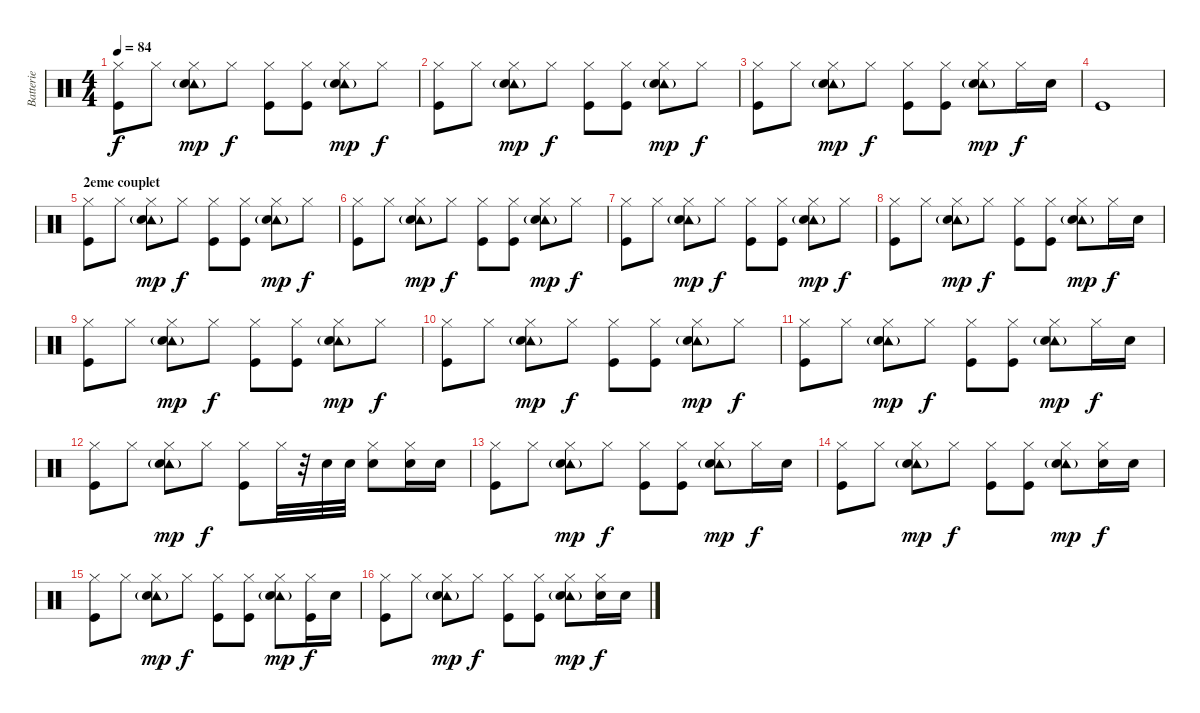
\track ("Batterie" "Batterie") {instrument percussion}
\staff {score}
\articulation defaults
\ts (4 4)
\tempo 84
\clef neutral
\ks c
("Hi-Hat (closed)" "Kick (hit)").8{dy f} "Hi-Hat (closed)".8 ("Hi-Hat (closed)" "Tambourine (hit)"{g} "Snare (hit) 2").8{dy mp} "Hi-Hat (closed)".8{dy f} ("Hi-Hat (closed)" "Kick (hit)").8 ("Hi-Hat (closed)" "Kick (hit)").8 ("Hi-Hat (closed)" "Tambourine (hit)"{g} "Snare (hit) 2").8{dy mp} "Hi-Hat (closed)".8{dy f} |
("Hi-Hat (closed)" "Kick (hit)").8 "Hi-Hat (closed)".8 ("Hi-Hat (closed)" "Tambourine (hit)"{g} "Snare (hit) 2").8{dy mp} "Hi-Hat (closed)".8{dy f} ("Hi-Hat (closed)" "Kick (hit)").8 ("Hi-Hat (closed)" "Kick (hit)").8 ("Hi-Hat (closed)" "Tambourine (hit)"{g} "Snare (hit) 2").8{dy mp} "Hi-Hat (closed)".8{dy f} |
("Hi-Hat (closed)" "Kick (hit)").8 "Hi-Hat (closed)".8 ("Hi-Hat (closed)" "Tambourine (hit)"{g} "Snare (hit) 2").8{dy mp} "Hi-Hat (closed)".8{dy f} ("Hi-Hat (closed)" "Kick (hit)").8 ("Hi-Hat (closed)" "Kick (hit)").8 ("Hi-Hat (closed)" "Tambourine (hit)"{g} "Snare (hit) 2").8{dy mp} "Hi-Hat (closed)".16{dy f} "Snare (hit) 2".16 |
"Kick (hit)".1 |
\section ("" "2eme couplet")
("Hi-Hat (closed)" "Kick (hit)").8 "Hi-Hat (closed)".8 ("Hi-Hat (closed)" "Tambourine (hit)"{g} "Snare (hit) 2").8{dy mp} "Hi-Hat (closed)".8{dy f} ("Hi-Hat (closed)" "Kick (hit)").8 ("Hi-Hat (closed)" "Kick (hit)").8 ("Hi-Hat (closed)" "Tambourine (hit)"{g} "Snare (hit) 2").8{dy mp} "Hi-Hat (closed)".8{dy f} |
("Hi-Hat (closed)" "Kick (hit)").8 "Hi-Hat (closed)".8 ("Hi-Hat (closed)" "Tambourine (hit)"{g} "Snare (hit) 2").8{dy mp} "Hi-Hat (closed)".8{dy f} ("Hi-Hat (closed)" "Kick (hit)").8 ("Hi-Hat (closed)" "Kick (hit)").8 ("Hi-Hat (closed)" "Tambourine (hit)"{g} "Snare (hit) 2").8{dy mp} "Hi-Hat (closed)".8{dy f} |
("Hi-Hat (closed)" "Kick (hit)").8 "Hi-Hat (closed)".8 ("Hi-Hat (closed)" "Tambourine (hit)"{g} "Snare (hit) 2").8{dy mp} "Hi-Hat (closed)".8{dy f} ("Hi-Hat (closed)" "Kick (hit)").8 ("Hi-Hat (closed)" "Kick (hit)").8 ("Hi-Hat (closed)" "Tambourine (hit)"{g} "Snare (hit) 2").8{dy mp} "Hi-Hat (closed)".8{dy f} |
("Hi-Hat (closed)" "Kick (hit)").8 "Hi-Hat (closed)".8 ("Hi-Hat (closed)" "Tambourine (hit)"{g} "Snare (hit) 2").8{dy mp} "Hi-Hat (closed)".8{dy f} ("Hi-Hat (closed)" "Kick (hit)").8 ("Hi-Hat (closed)" "Kick (hit)").8 ("Hi-Hat (closed)" "Tambourine (hit)"{g} "Snare (hit) 2").8{dy mp} "Hi-Hat (closed)".16{dy f} "Snare (hit) 2".16 |
("Hi-Hat (closed)" "Kick (hit)").8 "Hi-Hat (closed)".8 ("Hi-Hat (closed)" "Tambourine (hit)"{g} "Snare (hit) 2").8{dy mp} "Hi-Hat (closed)".8{dy f} ("Hi-Hat (closed)" "Kick (hit)").8 ("Hi-Hat (closed)" "Kick (hit)").8 ("Hi-Hat (closed)" "Tambourine (hit)"{g} "Snare (hit) 2").8{dy mp} "Hi-Hat (closed)".8{dy f} |
("Hi-Hat (closed)" "Kick (hit)").8 "Hi-Hat (closed)".8 ("Hi-Hat (closed)" "Tambourine (hit)"{g} "Snare (hit) 2").8{dy mp} "Hi-Hat (closed)".8{dy f} ("Hi-Hat (closed)" "Kick (hit)").8 ("Hi-Hat (closed)" "Kick (hit)").8 ("Hi-Hat (closed)" "Tambourine (hit)"{g} "Snare (hit) 2").8{dy mp} "Hi-Hat (closed)".8{dy f} |
("Hi-Hat (closed)" "Kick (hit)").8 "Hi-Hat (closed)".8 ("Hi-Hat (closed)" "Tambourine (hit)"{g} "Snare (hit) 2").8{dy mp} "Hi-Hat (closed)".8{dy f} ("Hi-Hat (closed)" "Kick (hit)").8 ("Hi-Hat (closed)" "Kick (hit)").8 ("Hi-Hat (closed)" "Tambourine (hit)"{g} "Snare (hit) 2").8{dy mp} "Hi-Hat (closed)".16{dy f} "Snare (hit) 2".16 |
("Hi-Hat (closed)" "Kick (hit)").8 "Hi-Hat (closed)".8 ("Hi-Hat (closed)" "Tambourine (hit)"{g} "Snare (hit) 2").8{dy mp} "Hi-Hat (closed)".8{dy f} ("Hi-Hat (closed)" "Kick (hit)").8 "Hi-Hat (closed)".32 r.32 "Snare (hit) 2".32 "Snare (hit) 2".32 ("Hi-Hat (closed)" "Snare (hit) 2").8 ("Hi-Hat (closed)" "Snare (hit) 2").16 "Snare (hit) 2".16 |
\section ("" "")
("Hi-Hat (closed)" "Kick (hit)").8 "Hi-Hat (closed)".8 ("Hi-Hat (closed)" "Tambourine (hit)"{g} "Snare (hit) 2").8{dy mp} "Hi-Hat (closed)".8{dy f} ("Hi-Hat (closed)" "Kick (hit)").8 ("Hi-Hat (closed)" "Kick (hit)").8 ("Hi-Hat (closed)" "Tambourine (hit)"{g} "Snare (hit) 2").8{dy mp} "Hi-Hat (closed)".16{dy f} "Snare (hit) 2".16 |
("Hi-Hat (closed)" "Kick (hit)").8 "Hi-Hat (closed)".8 ("Hi-Hat (closed)" "Tambourine (hit)"{g} "Snare (hit) 2").8{dy mp} "Hi-Hat (closed)".8{dy f} ("Hi-Hat (closed)" "Kick (hit)").8 ("Hi-Hat (closed)" "Kick (hit)").8 ("Hi-Hat (closed)" "Tambourine (hit)"{g} "Snare (hit) 2").8{dy mp} ("Hi-Hat (closed)" "Snare (hit) 2").16{dy f} "Snare (hit) 2".16 |
("Hi-Hat (closed)" "Kick (hit)").8 "Hi-Hat (closed)".8 ("Hi-Hat (closed)" "Tambourine (hit)"{g} "Snare (hit) 2").8{dy mp} "Hi-Hat (closed)".8{dy f} ("Hi-Hat (closed)" "Kick (hit)").8 ("Hi-Hat (closed)" "Kick (hit)").8 ("Hi-Hat (closed)" "Tambourine (hit)"{g} "Snare (hit) 2").8{dy mp} ("Hi-Hat (closed)" "Kick (hit)").16{dy f} "Snare (hit) 2".16 |
("Hi-Hat (closed)" "Kick (hit)").8 "Hi-Hat (closed)".8 ("Hi-Hat (closed)" "Tambourine (hit)"{g} "Snare (hit) 2").8{dy mp} "Hi-Hat (closed)".8{dy f} ("Hi-Hat (closed)" "Kick (hit)").8 ("Hi-Hat (closed)" "Kick (hit)").8 ("Hi-Hat (closed)" "Tambourine (hit)"{g} "Snare (hit) 2").8{dy mp} ("Hi-Hat (closed)" "Snare (hit) 2").16{dy f} "Snare (hit) 2".16
